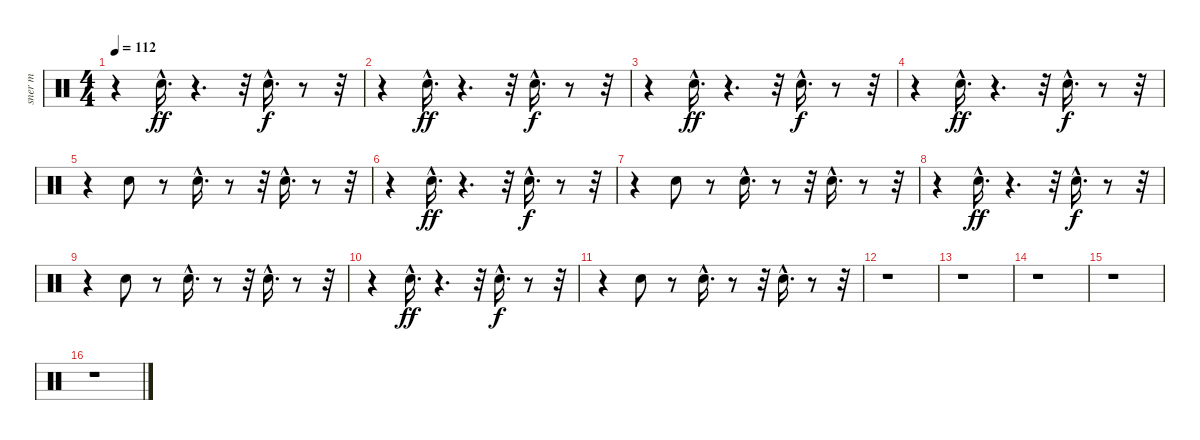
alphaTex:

\track ("sner m" "sner m") {instrument percussion}
\staff {score}
\articulation defaults
\ts (4 4)
\tempo 112
\clef neutral
\ks c
r.4{dy f} "Snare (hit) 2"{hac}.16{d dy ff} r.4{d} r.32 "Snare (hit) 2"{hac}.16{d dy f} r.8 r.32 |
r.4 "Snare (hit) 2"{hac}.16{d dy ff} r.4{d} r.32 "Snare (hit) 2"{hac}.16{d dy f} r.8 r.32 |
r.4 "Snare (hit) 2"{hac}.16{d dy ff} r.4{d} r.32 "Snare (hit) 2"{hac}.16{d dy f} r.8 r.32 |
r.4 "Snare (hit) 2"{hac}.16{d dy ff} r.4{d} r.32 "Snare (hit) 2"{hac}.16{d dy f} r.8 r.32 |
r.4 "Snare (hit) 2".8 r.8 "Snare (hit) 2"{hac}.16{d} r.8 r.32 "Snare (hit) 2"{hac}.16{d} r.8 r.32 |
r.4 "Snare (hit) 2"{hac}.16{d dy ff} r.4{d} r.32 "Snare (hit) 2"{hac}.16{d dy f} r.8 r.32 |
r.4 "Snare (hit) 2".8 r.8 "Snare (hit) 2"{hac}.16{d} r.8 r.32 "Snare (hit) 2"{hac}.16{d} r.8 r.32 |
r.4 "Snare (hit) 2"{hac}.16{d dy ff} r.4{d} r.32 "Snare (hit) 2"{hac}.16{d dy f} r.8 r.32 |
r.4 "Snare (hit) 2".8 r.8 "Snare (hit) 2"{hac}.16{d} r.8 r.32 "Snare (hit) 2"{hac}.16{d} r.8 r.32 |
r.4 "Snare (hit) 2"{hac}.16{d dy ff} r.4{d} r.32 "Snare (hit) 2"{hac}.16{d dy f} r.8 r.32 |
r.4 "Snare (hit) 2".8 r.8 "Snare (hit) 2"{hac}.16{d} r.8 r.32 "Snare (hit) 2"{hac}.16{d} r.8 r.32 |
r.1 |
r.1 |
r.1 |
r.1 |
r.1
